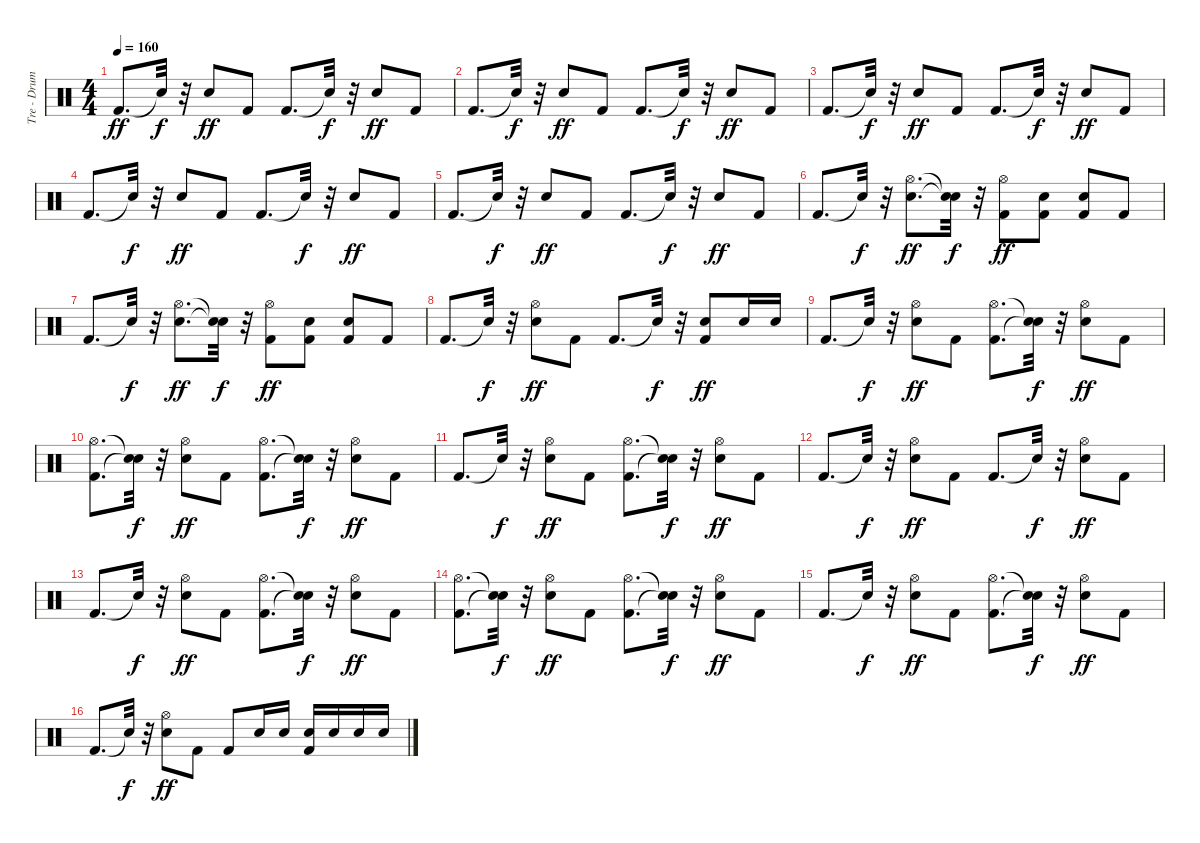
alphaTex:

\track ("Tre - Drums-2" "Tre - Drum") {instrument percussion}
\staff {score}
\articulation defaults
\ts (4 4)
\tempo 160
\clef neutral
\ks c "Kick (hit) 2".8{d dy ff} "Snare (hit)"{t}.32{dy f}
r.32 "Electric Snare (hit)".8{dy ff} "Kick (hit) 2".8 "Kick (hit) 2".8{d} "Snare (hit)"{t}.32{dy f} r.32 "Electric Snare (hit)".8{dy ff} "Kick (hit) 2".8 |
"Kick (hit) 2".8{d} "Snare (hit)"{t}.32{dy f} r.32 "Electric Snare (hit)".8{dy ff} "Kick (hit) 2".8 "Kick (hit) 2".8{d} "Snare (hit)"{t}.32{dy f} r.32 "Electric Snare (hit)".8{dy ff} "Kick (hit) 2".8 |
"Kick (hit) 2".8{d} "Snare (hit)"{t}.32{dy f} r.32 "Electric Snare (hit)".8{dy ff} "Kick (hit) 2".8 "Kick (hit) 2".8{d} "Snare (hit)"{t}.32{dy f} r.32 "Electric Snare (hit)".8{dy ff} "Kick (hit) 2".8 |
"Kick (hit) 2".8{d} "Snare (hit)"{t}.32{dy f} r.32 "Electric Snare (hit)".8{dy ff} "Kick (hit) 2".8 "Kick (hit) 2".8{d} "Snare (hit)"{t}.32{dy f} r.32 "Electric Snare (hit)".8{dy ff} "Kick (hit) 2".8 |
"Kick (hit) 2".8{d} "Snare (hit)"{t}.32{dy f} r.32 "Electric Snare (hit)".8{dy ff} "Kick (hit) 2".8 "Kick (hit) 2".8{d} "Snare (hit)"{t}.32{dy f} r.32 "Electric Snare (hit)".8{dy ff} "Kick (hit) 2".8 |
"Kick (hit) 2".8{d} "Snare (hit)"{t}.32{dy f} r.32 ("Electric Snare (hit)" "Hi-Hat (open)").8{d dy ff} ("Snare (hit)"{t} "Snare (hit)"{t}).32{dy f} r.32 ("Kick (hit) 2" "Hi-Hat (open)").8{dy ff} ("Kick (hit) 2" "Electric Snare (hit)").8 ("Kick (hit) 2" "Electric Snare (hit)").8 "Kick (hit) 2".8 |
"Kick (hit) 2".8{d} "Snare (hit)"{t}.32{dy f} r.32 ("Electric Snare (hit)" "Hi-Hat (open)").8{d dy ff} ("Snare (hit)"{t} "Snare (hit)"{t}).32{dy f} r.32 ("Kick (hit) 2" "Hi-Hat (open)").8{dy ff} ("Kick (hit) 2" "Electric Snare (hit)").8 ("Kick (hit) 2" "Electric Snare (hit)").8 "Kick (hit) 2".8 |
"Kick (hit) 2".8{d} "Snare (hit)"{t}.32{dy f} r.32 ("Electric Snare (hit)" "Hi-Hat (open)").8{dy ff} "Kick (hit) 2".8 "Kick (hit) 2".8{d} "Snare (hit)"{t}.32{dy f} r.32 ("Kick (hit) 2" "Electric Snare (hit)").8{dy ff} "Electric Snare (hit)".16 "Electric Snare (hit)".16 |
"Kick (hit) 2".8{d} "Snare (hit)"{t}.32{dy f} r.32 ("Electric Snare (hit)" "Hi-Hat (open)").8{dy ff} "Kick (hit) 2".8 ("Kick (hit) 2" "Hi-Hat (open)").8{d} ("Snare (hit)"{t} "Snare (hit)"{t}).32{dy f} r.32 ("Electric Snare (hit)" "Hi-Hat (open)").8{dy ff} "Kick (hit) 2".8 |
("Kick (hit) 2" "Hi-Hat (open)").8{d} ("Snare (hit)"{t} "Snare (hit)"{t}).32{dy f} r.32 ("Electric Snare (hit)" "Hi-Hat (open)").8{dy ff} "Kick (hit) 2".8 ("Kick (hit) 2" "Hi-Hat (open)").8{d} ("Snare (hit)"{t} "Snare (hit)"{t}).32{dy f} r.32 ("Electric Snare (hit)" "Hi-Hat (open)").8{dy ff} "Kick (hit) 2".8 |
"Kick (hit) 2".8{d} "Snare (hit)"{t}.32{dy f} r.32 ("Electric Snare (hit)" "Hi-Hat (open)").8{dy ff} "Kick (hit) 2".8 ("Kick (hit) 2" "Hi-Hat (open)").8{d} ("Snare (hit)"{t} "Snare (hit)"{t}).32{dy f} r.32 ("Electric Snare (hit)" "Hi-Hat (open)").8{dy ff} "Kick (hit) 2".8 |
"Kick (hit) 2".8{d} "Snare (hit)"{t}.32{dy f} r.32 ("Electric Snare (hit)" "Hi-Hat (open)").8{dy ff} "Kick (hit) 2".8 "Kick (hit) 2".8{d} "Snare (hit)"{t}.32{dy f} r.32 ("Electric Snare (hit)" "Hi-Hat (open)").8{dy ff} "Kick (hit) 2".8 |
"Kick (hit) 2".8{d} "Snare (hit)"{t}.32{dy f} r.32 ("Electric Snare (hit)" "Hi-Hat (open)").8{dy ff} "Kick (hit) 2".8 ("Kick (hit) 2" "Hi-Hat (open)").8{d} ("Snare (hit)"{t} "Snare (hit)"{t}).32{dy f} r.32 ("Electric Snare (hit)" "Hi-Hat (open)").8{dy ff} "Kick (hit) 2".8 |
("Kick (hit) 2" "Hi-Hat (open)").8{d} ("Snare (hit)"{t} "Snare (hit)"{t}).32{dy f} r.32 ("Electric Snare (hit)" "Hi-Hat (open)").8{dy ff} "Kick (hit) 2".8 ("Kick (hit) 2" "Hi-Hat (open)").8{d} ("Snare (hit)"{t} "Snare (hit)"{t}).32{dy f} r.32 ("Electric Snare (hit)" "Hi-Hat (open)").8{dy ff} "Kick (hit) 2".8 |
"Kick (hit) 2".8{d} "Snare (hit)"{t}.32{dy f} r.32 ("Electric Snare (hit)" "Hi-Hat (open)").8{dy ff} "Kick (hit) 2".8 ("Kick (hit) 2" "Hi-Hat (open)").8{d} ("Snare (hit)"{t} "Snare (hit)"{t}).32{dy f} r.32 ("Electric Snare (hit)" "Hi-Hat (open)").8{dy ff} "Kick (hit) 2".8 |
"Kick (hit) 2".8{d} "Snare (hit)"{t}.32{dy f} r.32 ("Electric Snare (hit)" "Hi-Hat (open)").8{dy ff} "Kick (hit) 2".8 "Kick (hit) 2".8 "Electric Snare (hit)".16 "Electric Snare (hit)".16 ("Kick (hit) 2" "Electric Snare (hit)").16 "Electric Snare (hit)".16 "Electric Snare (hit)".16 "Electric Snare (hit)".16
